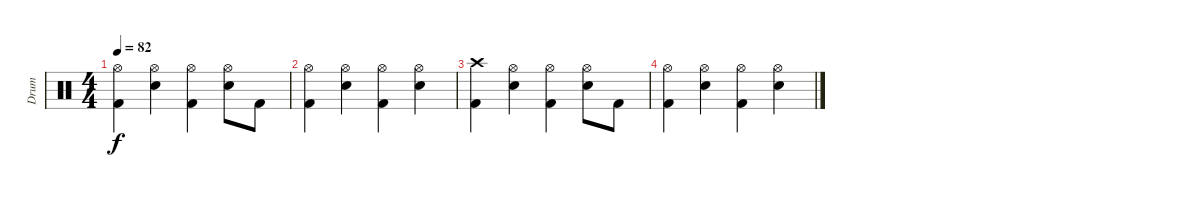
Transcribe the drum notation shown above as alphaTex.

\track ("Drum" "Drum") {instrument percussion}
\staff {score}
\articulation defaults
\ts (4 4)
\tempo 82
\clef neutral
\ks c
("Hi-Hat (open)" "Kick (hit) 2").4{dy f} ("Hi-Hat (open)" "Snare (hit) 2").4 ("Hi-Hat (open)" "Kick (hit) 2").4 ("Hi-Hat (open)" "Snare (hit) 2").8 "Kick (hit) 2".8 |
("Hi-Hat (open)" "Kick (hit) 2").4 ("Hi-Hat (open)" "Snare (hit) 2").4 ("Hi-Hat (open)" "Kick (hit) 2").4 ("Hi-Hat (open)" "Snare (hit) 2").4 |
("Crash high (hit)" "Kick (hit) 2").4 ("Hi-Hat (open)" "Snare (hit) 2").4 ("Hi-Hat (open)" "Kick (hit) 2").4 ("Hi-Hat (open)" "Snare (hit) 2").8 "Kick (hit) 2".8 |
("Hi-Hat (open)" "Kick (hit) 2").4 ("Hi-Hat (open)" "Snare (hit) 2").4 ("Hi-Hat (open)" "Kick (hit) 2").4 ("Hi-Hat (open)" "Snare (hit) 2").4
